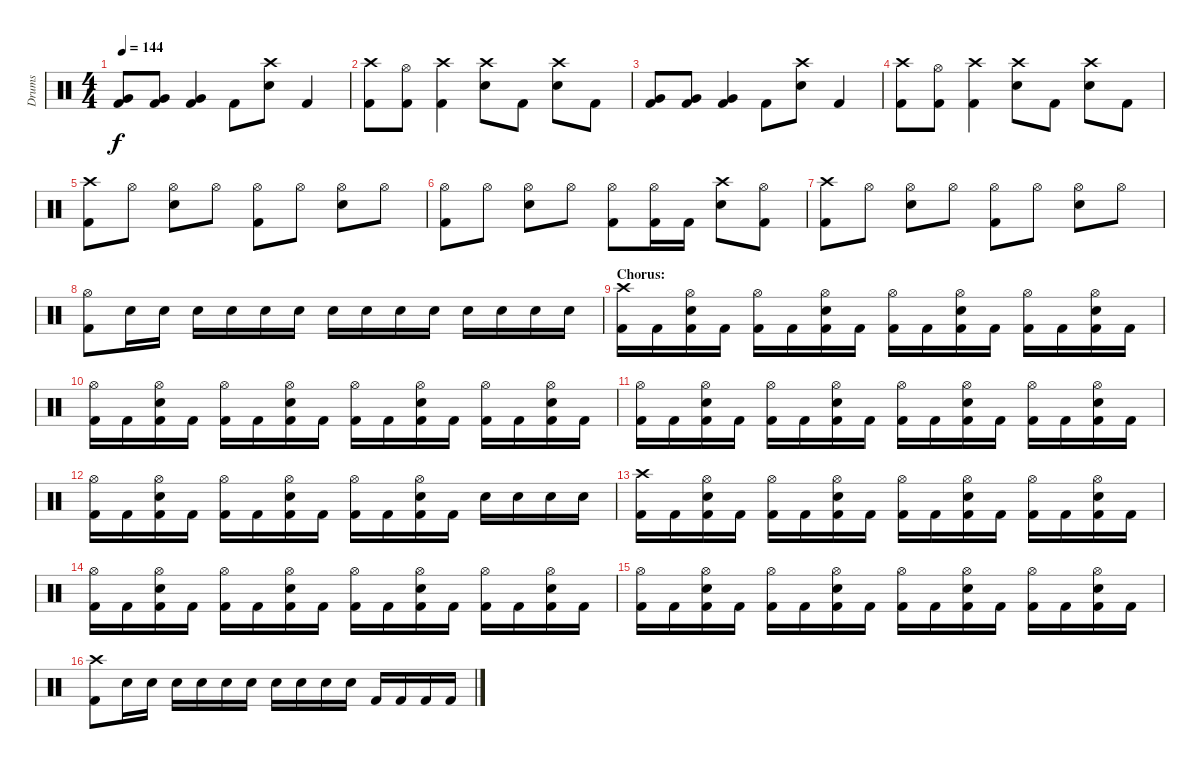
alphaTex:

\track ("Drums" "Drums") {instrument percussion}
\staff {score}
\articulation defaults
\ts (4 4)
\tempo 144
\clef neutral
\ks c
("Very Low Tom (hit)" "Kick (hit) 2").8{dy f} ("Very Low Tom (hit)" "Kick (hit) 2").8 ("Very Low Tom (hit)" "Kick (hit) 2").4 "Kick (hit) 2".8 ("Crash high (hit)" "Snare (hit) 2").8 "Kick (hit) 2".4 |
("Crash high (hit)" "Kick (hit) 2").8 ("Hi-Hat (open)" "Kick (hit) 2").8 ("Crash high (hit)" "Kick (hit) 2").4 ("Crash high (hit)" "Snare (hit) 2").8 "Kick (hit) 2".8 ("Crash high (hit)" "Snare (hit) 2").8 "Kick (hit) 2".8 |
("Very Low Tom (hit)" "Kick (hit) 2").8 ("Very Low Tom (hit)" "Kick (hit) 2").8 ("Very Low Tom (hit)" "Kick (hit) 2").4 "Kick (hit) 2".8 ("Crash high (hit)" "Snare (hit) 2").8 "Kick (hit) 2".4 |
("Crash high (hit)" "Kick (hit) 2").8 ("Hi-Hat (open)" "Kick (hit) 2").8 ("Crash high (hit)" "Kick (hit) 2").4 ("Crash high (hit)" "Snare (hit) 2").8 "Kick (hit) 2".8 ("Crash high (hit)" "Snare (hit) 2").8 "Kick (hit) 2".8 |
("Crash high (hit)" "Kick (hit) 2").8 "Hi-Hat (open)".8 ("Hi-Hat (open)" "Snare (hit) 2").8 "Hi-Hat (open)".8 ("Hi-Hat (open)" "Kick (hit) 2").8 "Hi-Hat (open)".8 ("Hi-Hat (open)" "Snare (hit) 2").8 "Hi-Hat (open)".8 |
("Hi-Hat (open)" "Kick (hit) 2").8 "Hi-Hat (open)".8 ("Hi-Hat (open)" "Snare (hit) 2").8 "Hi-Hat (open)".8 ("Hi-Hat (open)" "Kick (hit) 2").8 ("Hi-Hat (open)" "Kick (hit) 2").16 "Kick (hit) 2".16 ("Crash high (hit)" "Snare (hit) 2").8 ("Hi-Hat (open)" "Kick (hit) 2").8 |
("Crash high (hit)" "Kick (hit) 2").8 "Hi-Hat (open)".8 ("Hi-Hat (open)" "Snare (hit) 2").8 "Hi-Hat (open)".8 ("Hi-Hat (open)" "Kick (hit) 2").8 "Hi-Hat (open)".8 ("Hi-Hat (open)" "Snare (hit) 2").8 "Hi-Hat (open)".8 |
("Hi-Hat (open)" "Kick (hit) 2").8 "Snare (hit) 2".16 "Snare (hit) 2".16 "Snare (hit) 2".16 "Snare (hit) 2".16 "Snare (hit) 2".16 "Snare (hit) 2".16 "Snare (hit) 2".16 "Snare (hit) 2".16 "Snare (hit) 2".16 "Snare (hit) 2".16 "Snare (hit) 2".16 "Snare (hit) 2".16 "Snare (hit) 2".16 "Snare (hit) 2".16 |
\section ("" "Chorus:")
("Crash high (hit)" "Kick (hit) 2").16 "Kick (hit) 2".16 ("Hi-Hat (open)" "Snare (hit) 2" "Kick (hit) 2").16 "Kick (hit) 2".16 ("Hi-Hat (open)" "Kick (hit) 2").16 "Kick (hit) 2".16 ("Hi-Hat (open)" "Snare (hit) 2" "Kick (hit) 2").16 "Kick (hit) 2".16 ("Hi-Hat (open)" "Kick (hit) 2").16 "Kick (hit) 2".16 ("Hi-Hat (open)" "Snare (hit) 2" "Kick (hit) 2").16 "Kick (hit) 2".16 ("Hi-Hat (open)" "Kick (hit) 2").16 "Kick (hit) 2".16 ("Hi-Hat (open)" "Snare (hit) 2" "Kick (hit) 2").16 "Kick (hit) 2".16 |
("Hi-Hat (open)" "Kick (hit) 2").16 "Kick (hit) 2".16 ("Hi-Hat (open)" "Snare (hit) 2" "Kick (hit) 2").16 "Kick (hit) 2".16 ("Hi-Hat (open)" "Kick (hit) 2").16 "Kick (hit) 2".16 ("Hi-Hat (open)" "Snare (hit) 2" "Kick (hit) 2").16 "Kick (hit) 2".16 ("Hi-Hat (open)" "Kick (hit) 2").16 "Kick (hit) 2".16 ("Hi-Hat (open)" "Snare (hit) 2" "Kick (hit) 2").16 "Kick (hit) 2".16 ("Hi-Hat (open)" "Kick (hit) 2").16 "Kick (hit) 2".16 ("Hi-Hat (open)" "Snare (hit) 2" "Kick (hit) 2").16 "Kick (hit) 2".16 |
("Hi-Hat (open)" "Kick (hit) 2").16 "Kick (hit) 2".16 ("Hi-Hat (open)" "Snare (hit) 2" "Kick (hit) 2").16 "Kick (hit) 2".16 ("Hi-Hat (open)" "Kick (hit) 2").16 "Kick (hit) 2".16 ("Hi-Hat (open)" "Snare (hit) 2" "Kick (hit) 2").16 "Kick (hit) 2".16 ("Hi-Hat (open)" "Kick (hit) 2").16 "Kick (hit) 2".16 ("Hi-Hat (open)" "Snare (hit) 2" "Kick (hit) 2").16 "Kick (hit) 2".16 ("Hi-Hat (open)" "Kick (hit) 2").16 "Kick (hit) 2".16 ("Hi-Hat (open)" "Snare (hit) 2" "Kick (hit) 2").16 "Kick (hit) 2".16 |
("Hi-Hat (open)" "Kick (hit) 2").16 "Kick (hit) 2".16 ("Hi-Hat (open)" "Snare (hit) 2" "Kick (hit) 2").16 "Kick (hit) 2".16 ("Hi-Hat (open)" "Kick (hit) 2").16 "Kick (hit) 2".16 ("Hi-Hat (open)" "Snare (hit) 2" "Kick (hit) 2").16 "Kick (hit) 2".16 ("Hi-Hat (open)" "Kick (hit) 2").16 "Kick (hit) 2".16 ("Hi-Hat (open)" "Snare (hit) 2" "Kick (hit) 2").16 "Kick (hit) 2".16 "Snare (hit) 2".16 "Snare (hit) 2".16 "Snare (hit) 2".16 "Snare (hit) 2".16 |
("Crash high (hit)" "Kick (hit) 2").16 "Kick (hit) 2".16 ("Hi-Hat (open)" "Snare (hit) 2" "Kick (hit) 2").16 "Kick (hit) 2".16 ("Hi-Hat (open)" "Kick (hit) 2").16 "Kick (hit) 2".16 ("Hi-Hat (open)" "Snare (hit) 2" "Kick (hit) 2").16 "Kick (hit) 2".16 ("Hi-Hat (open)" "Kick (hit) 2").16 "Kick (hit) 2".16 ("Hi-Hat (open)" "Snare (hit) 2" "Kick (hit) 2").16 "Kick (hit) 2".16 ("Hi-Hat (open)" "Kick (hit) 2").16 "Kick (hit) 2".16 ("Hi-Hat (open)" "Snare (hit) 2" "Kick (hit) 2").16 "Kick (hit) 2".16 |
("Hi-Hat (open)" "Kick (hit) 2").16 "Kick (hit) 2".16 ("Hi-Hat (open)" "Snare (hit) 2" "Kick (hit) 2").16 "Kick (hit) 2".16 ("Hi-Hat (open)" "Kick (hit) 2").16 "Kick (hit) 2".16 ("Hi-Hat (open)" "Snare (hit) 2" "Kick (hit) 2").16 "Kick (hit) 2".16 ("Hi-Hat (open)" "Kick (hit) 2").16 "Kick (hit) 2".16 ("Hi-Hat (open)" "Snare (hit) 2" "Kick (hit) 2").16 "Kick (hit) 2".16 ("Hi-Hat (open)" "Kick (hit) 2").16 "Kick (hit) 2".16 ("Hi-Hat (open)" "Snare (hit) 2" "Kick (hit) 2").16 "Kick (hit) 2".16 |
("Hi-Hat (open)" "Kick (hit) 2").16 "Kick (hit) 2".16 ("Hi-Hat (open)" "Snare (hit) 2" "Kick (hit) 2").16 "Kick (hit) 2".16 ("Hi-Hat (open)" "Kick (hit) 2").16 "Kick (hit) 2".16 ("Hi-Hat (open)" "Snare (hit) 2" "Kick (hit) 2").16 "Kick (hit) 2".16 ("Hi-Hat (open)" "Kick (hit) 2").16 "Kick (hit) 2".16 ("Hi-Hat (open)" "Snare (hit) 2" "Kick (hit) 2").16 "Kick (hit) 2".16 ("Hi-Hat (open)" "Kick (hit) 2").16 "Kick (hit) 2".16 ("Hi-Hat (open)" "Snare (hit) 2" "Kick (hit) 2").16 "Kick (hit) 2".16 |
("Crash high (hit)" "Kick (hit) 2").8 "Snare (hit) 2".16 "Snare (hit) 2".16 "Snare (hit) 2".16 "Snare (hit) 2".16 "Snare (hit) 2".16 "Snare (hit) 2".16 "Snare (hit) 2".16 "Snare (hit) 2".16 "Snare (hit) 2".16 "Snare (hit) 2".16 "Kick (hit) 2".16 "Kick (hit) 2".16 "Kick (hit) 2".16 "Kick (hit) 2".16
